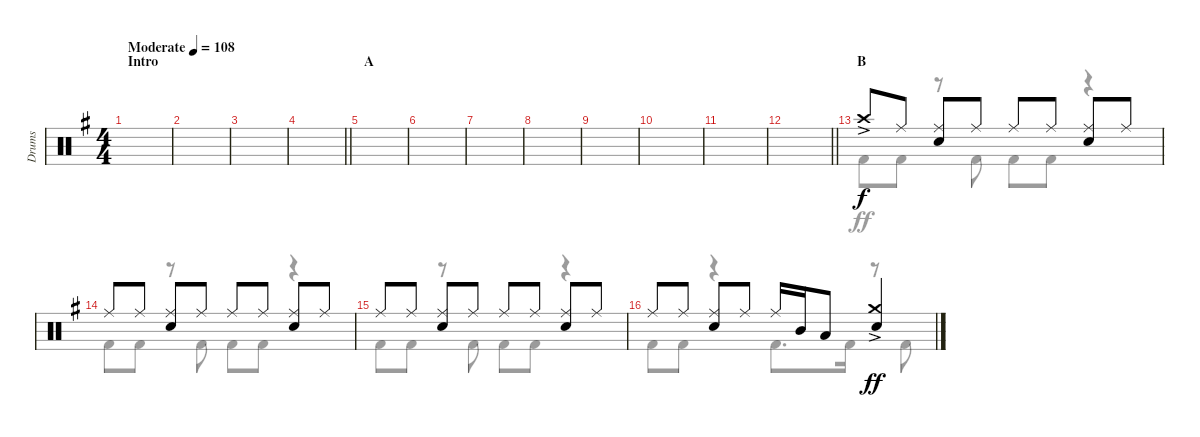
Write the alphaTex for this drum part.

\track ("Drums" "Drums") {instrument percussion}
\staff {score}
\articulation defaults
\voice
\ts (4 4)
\section ("" "Intro")
\tempo (108 "Moderate")
\clef neutral
\ks g
|
|
|
\barLineRight lightlight
|
\section ("" "A")
|
|
|
|
|
|
|
\barLineRight lightlight
|
\section ("" "B")
"Crash high (hit)"{ac}.8 "Ride (middle)".8{dy f} ("Ride (middle)" "Snare (hit) 2").8 "Ride (middle)".8 "Ride (middle)".8 "Ride (middle)".8 ("Ride (middle)" "Snare (hit) 2").8 "Ride (middle)".8 |
"Ride (middle)".8 "Ride (middle)".8 ("Ride (middle)" "Snare (hit) 2").8 "Ride (middle)".8 "Ride (middle)".8 "Ride (middle)".8 ("Ride (middle)" "Snare (hit) 2").8 "Ride (middle)".8 |
"Ride (middle)".8 "Ride (middle)".8 ("Ride (middle)" "Snare (hit) 2").8 "Ride (middle)".8 "Ride (middle)".8 "Ride (middle)".8 ("Ride (middle)" "Snare (hit) 2").8 "Ride (middle)".8 |
"Ride (middle)".8 "Ride (middle)".8 ("Ride (middle)" "Snare (hit) 2").8 "Ride (middle)".8 "Ride (middle)".16 "Mid Tom (hit)".16 "Low Tom (hit)".8 ("Crash medium (hit)"{ac} "Snare (hit) 2").4{dy ff}
\voice
\clef neutral
\ottava regular
\simile none
\ks g
|
|
|
\barLineRight lightlight
|
|
|
|
|
|
|
|
\barLineRight lightlight
|
"Kick (hit) 2".8 "Kick (hit) 2".8 r.8 "Kick (hit) 2".8 "Kick (hit) 2".8 "Kick (hit) 2".8 r.4 |
"Kick (hit) 2".8 "Kick (hit) 2".8 r.8 "Kick (hit) 2".8 "Kick (hit) 2".8 "Kick (hit) 2".8 r.4 |
"Kick (hit) 2".8 "Kick (hit) 2".8 r.8 "Kick (hit) 2".8 "Kick (hit) 2".8 "Kick (hit) 2".8 r.4 |
"Kick (hit) 2".8 "Kick (hit) 2".8 r.4 "Kick (hit) 2".8{d} "Kick (hit) 2".16 r.8 "Kick (hit) 2".8
